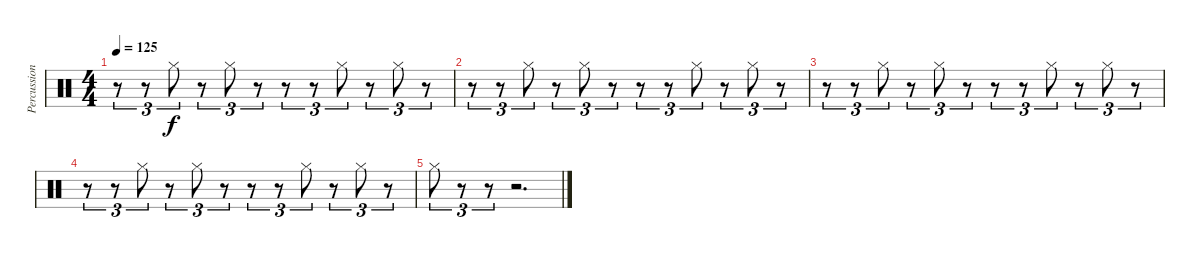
\track ("Percussion" "Percussion") {instrument percussion}
\staff {score}
\articulation defaults
\ts (4 4)
\tempo 125
\clef neutral
\ks c
r.8{tu (3 2) dy f} r.8{tu (3 2)} "Hi-Hat (closed)".8{tu (3 2)} r.8{tu (3 2)} "Hi-Hat (closed)".8{tu (3 2)} r.8{tu (3 2)} r.8{tu (3 2)} r.8{tu (3 2)} "Hi-Hat (closed)".8{tu (3 2)} r.8{tu (3 2)} "Hi-Hat (closed)".8{tu (3 2)} r.8{tu (3 2)} |
r.8{tu (3 2)} r.8{tu (3 2)} "Hi-Hat (closed)".8{tu (3 2)} r.8{tu (3 2)} "Hi-Hat (closed)".8{tu (3 2)} r.8{tu (3 2)} r.8{tu (3 2)} r.8{tu (3 2)} "Hi-Hat (closed)".8{tu (3 2)} r.8{tu (3 2)} "Hi-Hat (closed)".8{tu (3 2)} r.8{tu (3 2)} |
r.8{tu (3 2)} r.8{tu (3 2)} "Hi-Hat (closed)".8{tu (3 2)} r.8{tu (3 2)} "Hi-Hat (closed)".8{tu (3 2)} r.8{tu (3 2)} r.8{tu (3 2)} r.8{tu (3 2)} "Hi-Hat (closed)".8{tu (3 2)} r.8{tu (3 2)} "Hi-Hat (closed)".8{tu (3 2)} r.8{tu (3 2)} |
r.8{tu (3 2)} r.8{tu (3 2)} "Hi-Hat (closed)".8{tu (3 2)} r.8{tu (3 2)} "Hi-Hat (closed)".8{tu (3 2)} r.8{tu (3 2)} r.8{tu (3 2)} r.8{tu (3 2)} "Hi-Hat (closed)".8{tu (3 2)} r.8{tu (3 2)} "Hi-Hat (closed)".8{tu (3 2)} r.8{tu (3 2)} |
"Hi-Hat (closed)".8{tu (3 2)} r.8{tu (3 2)} r.8{tu (3 2)} r.2{d}
